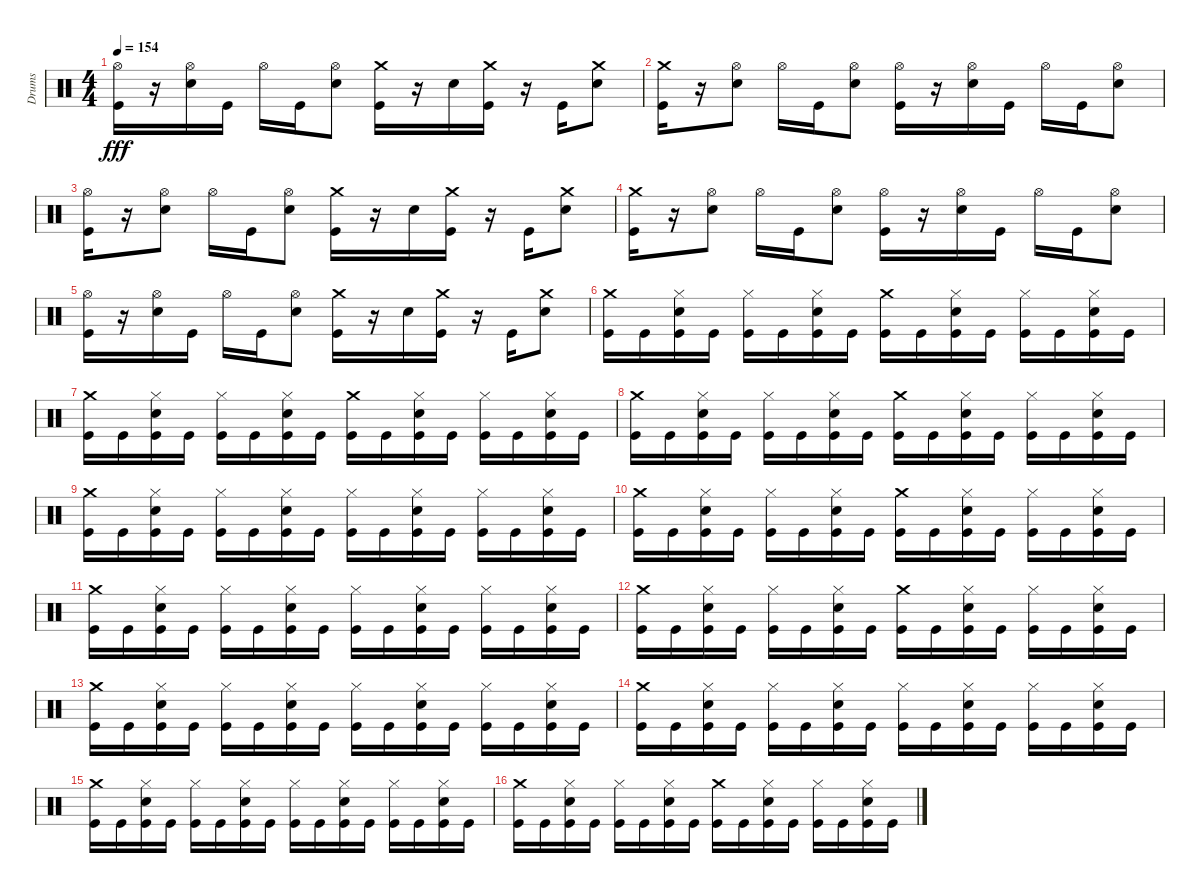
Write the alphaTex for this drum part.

\track ("Drums" "Drums") {instrument percussion}
\staff {score}
\articulation defaults
\ts (4 4)
\tempo 154
\clef neutral
\ks c
("Hi-Hat (open)" "Kick (hit)").16{dy fff} r.16 ("Snare (hit) 2" "Hi-Hat (open)").16 "Kick (hit)".16 "Hi-Hat (open)".16 "Kick (hit)".16 ("Snare (hit) 2" "Hi-Hat (open)").8 ("Crash medium (hit)" "Kick (hit)").16 r.16 "Snare (hit) 2".16 ("Crash medium (hit)" "Kick (hit)").16 r.16 "Kick (hit)".16 ("Crash medium (hit)" "Snare (hit) 2").8 |
("Kick (hit)" "Crash medium (hit)").16 r.16 ("Snare (hit) 2" "Hi-Hat (open)").8 "Hi-Hat (open)".16 "Kick (hit)".16 ("Snare (hit) 2" "Hi-Hat (open)").8 ("Kick (hit)" "Hi-Hat (open)").16 r.16 ("Snare (hit) 2" "Hi-Hat (open)").16 "Kick (hit)".16 "Hi-Hat (open)".16 "Kick (hit)".16 ("Snare (hit) 2" "Hi-Hat (open)").8 |
("Hi-Hat (open)" "Kick (hit)").16 r.16 ("Snare (hit) 2" "Hi-Hat (open)").8 "Hi-Hat (open)".16 "Kick (hit)".16 ("Snare (hit) 2" "Hi-Hat (open)").8 ("Crash medium (hit)" "Kick (hit)").16 r.16 "Snare (hit) 2".16 ("Crash medium (hit)" "Kick (hit)").16 r.16 "Kick (hit)".16 ("Crash medium (hit)" "Snare (hit) 2").8 |
("Kick (hit)" "Crash medium (hit)").16 r.16 ("Snare (hit) 2" "Hi-Hat (open)").8 "Hi-Hat (open)".16 "Kick (hit)".16 ("Snare (hit) 2" "Hi-Hat (open)").8 ("Kick (hit)" "Hi-Hat (open)").16 r.16 ("Snare (hit) 2" "Hi-Hat (open)").16 "Kick (hit)".16 "Hi-Hat (open)".16 "Kick (hit)".16 ("Snare (hit) 2" "Hi-Hat (open)").8 |
("Hi-Hat (open)" "Kick (hit)").16 r.16 ("Snare (hit) 2" "Hi-Hat (open)").16 "Kick (hit)".16 "Hi-Hat (open)".16 "Kick (hit)".16 ("Snare (hit) 2" "Hi-Hat (open)").8 ("Crash medium (hit)" "Kick (hit)").16 r.16 "Snare (hit) 2".16 ("Crash medium (hit)" "Kick (hit)").16 r.16 "Kick (hit)".16 ("Crash medium (hit)" "Snare (hit) 2").8 |
("Crash medium (hit)" "Kick (hit)").16 "Kick (hit)".16 ("Snare (hit) 2" "Hi-Hat (closed)" "Kick (hit)").16 "Kick (hit)".16 ("Hi-Hat (closed)" "Kick (hit)").16 "Kick (hit)".16 ("Snare (hit) 2" "Hi-Hat (closed)" "Kick (hit)").16 "Kick (hit)".16 ("Crash medium (hit)" "Kick (hit)").16 "Kick (hit)".16 ("Snare (hit) 2" "Hi-Hat (closed)" "Kick (hit)").16 "Kick (hit)".16 ("Hi-Hat (closed)" "Kick (hit)").16 "Kick (hit)".16 ("Snare (hit) 2" "Hi-Hat (closed)" "Kick (hit)").16 "Kick (hit)".16 |
("Crash medium (hit)" "Kick (hit)").16 "Kick (hit)".16 ("Snare (hit) 2" "Hi-Hat (closed)" "Kick (hit)").16 "Kick (hit)".16 ("Hi-Hat (closed)" "Kick (hit)").16 "Kick (hit)".16 ("Snare (hit) 2" "Hi-Hat (closed)" "Kick (hit)").16 "Kick (hit)".16 ("Crash medium (hit)" "Kick (hit)").16 "Kick (hit)".16 ("Snare (hit) 2" "Hi-Hat (closed)" "Kick (hit)").16 "Kick (hit)".16 ("Hi-Hat (closed)" "Kick (hit)").16 "Kick (hit)".16 ("Snare (hit) 2" "Hi-Hat (closed)" "Kick (hit)").16 "Kick (hit)".16 |
("Crash medium (hit)" "Kick (hit)").16 "Kick (hit)".16 ("Snare (hit) 2" "Hi-Hat (closed)" "Kick (hit)").16 "Kick (hit)".16 ("Hi-Hat (closed)" "Kick (hit)").16 "Kick (hit)".16 ("Snare (hit) 2" "Hi-Hat (closed)" "Kick (hit)").16 "Kick (hit)".16 ("Crash medium (hit)" "Kick (hit)").16 "Kick (hit)".16 ("Snare (hit) 2" "Hi-Hat (closed)" "Kick (hit)").16 "Kick (hit)".16 ("Hi-Hat (closed)" "Kick (hit)").16 "Kick (hit)".16 ("Snare (hit) 2" "Hi-Hat (closed)" "Kick (hit)").16 "Kick (hit)".16 |
("Crash medium (hit)" "Kick (hit)").16 "Kick (hit)".16 ("Snare (hit) 2" "Hi-Hat (closed)" "Kick (hit)").16 "Kick (hit)".16 ("Hi-Hat (closed)" "Kick (hit)").16 "Kick (hit)".16 ("Snare (hit) 2" "Hi-Hat (closed)" "Kick (hit)").16 "Kick (hit)".16 ("Hi-Hat (closed)" "Kick (hit)").16 "Kick (hit)".16 ("Snare (hit) 2" "Hi-Hat (closed)" "Kick (hit)").16 "Kick (hit)".16 ("Hi-Hat (closed)" "Kick (hit)").16 "Kick (hit)".16 ("Snare (hit) 2" "Hi-Hat (closed)" "Kick (hit)").16 "Kick (hit)".16 |
("Crash medium (hit)" "Kick (hit)").16 "Kick (hit)".16 ("Snare (hit) 2" "Hi-Hat (closed)" "Kick (hit)").16 "Kick (hit)".16 ("Hi-Hat (closed)" "Kick (hit)").16 "Kick (hit)".16 ("Snare (hit) 2" "Hi-Hat (closed)" "Kick (hit)").16 "Kick (hit)".16 ("Crash medium (hit)" "Kick (hit)").16 "Kick (hit)".16 ("Snare (hit) 2" "Hi-Hat (closed)" "Kick (hit)").16 "Kick (hit)".16 ("Hi-Hat (closed)" "Kick (hit)").16 "Kick (hit)".16 ("Snare (hit) 2" "Hi-Hat (closed)" "Kick (hit)").16 "Kick (hit)".16 |
("Crash medium (hit)" "Kick (hit)").16 "Kick (hit)".16 ("Snare (hit) 2" "Hi-Hat (closed)" "Kick (hit)").16 "Kick (hit)".16 ("Hi-Hat (closed)" "Kick (hit)").16 "Kick (hit)".16 ("Snare (hit) 2" "Hi-Hat (closed)" "Kick (hit)").16 "Kick (hit)".16 ("Hi-Hat (closed)" "Kick (hit)").16 "Kick (hit)".16 ("Snare (hit) 2" "Hi-Hat (closed)" "Kick (hit)").16 "Kick (hit)".16 ("Hi-Hat (closed)" "Kick (hit)").16 "Kick (hit)".16 ("Snare (hit) 2" "Hi-Hat (closed)" "Kick (hit)").16 "Kick (hit)".16 |
("Crash medium (hit)" "Kick (hit)").16 "Kick (hit)".16 ("Snare (hit) 2" "Hi-Hat (closed)" "Kick (hit)").16 "Kick (hit)".16 ("Hi-Hat (closed)" "Kick (hit)").16 "Kick (hit)".16 ("Snare (hit) 2" "Hi-Hat (closed)" "Kick (hit)").16 "Kick (hit)".16 ("Crash medium (hit)" "Kick (hit)").16 "Kick (hit)".16 ("Snare (hit) 2" "Hi-Hat (closed)" "Kick (hit)").16 "Kick (hit)".16 ("Hi-Hat (closed)" "Kick (hit)").16 "Kick (hit)".16 ("Snare (hit) 2" "Hi-Hat (closed)" "Kick (hit)").16 "Kick (hit)".16 |
("Crash medium (hit)" "Kick (hit)").16 "Kick (hit)".16 ("Snare (hit) 2" "Hi-Hat (closed)" "Kick (hit)").16 "Kick (hit)".16 ("Hi-Hat (closed)" "Kick (hit)").16 "Kick (hit)".16 ("Snare (hit) 2" "Hi-Hat (closed)" "Kick (hit)").16 "Kick (hit)".16 ("Hi-Hat (closed)" "Kick (hit)").16 "Kick (hit)".16 ("Snare (hit) 2" "Hi-Hat (closed)" "Kick (hit)").16 "Kick (hit)".16 ("Hi-Hat (closed)" "Kick (hit)").16 "Kick (hit)".16 ("Snare (hit) 2" "Hi-Hat (closed)" "Kick (hit)").16 "Kick (hit)".16 |
("Crash medium (hit)" "Kick (hit)").16 "Kick (hit)".16 ("Snare (hit) 2" "Hi-Hat (closed)" "Kick (hit)").16 "Kick (hit)".16 ("Hi-Hat (closed)" "Kick (hit)").16 "Kick (hit)".16 ("Snare (hit) 2" "Hi-Hat (closed)" "Kick (hit)").16 "Kick (hit)".16 ("Hi-Hat (closed)" "Kick (hit)").16 "Kick (hit)".16 ("Snare (hit) 2" "Hi-Hat (closed)" "Kick (hit)").16 "Kick (hit)".16 ("Hi-Hat (closed)" "Kick (hit)").16 "Kick (hit)".16 ("Snare (hit) 2" "Hi-Hat (closed)" "Kick (hit)").16 "Kick (hit)".16 |
("Crash medium (hit)" "Kick (hit)").16 "Kick (hit)".16 ("Snare (hit) 2" "Hi-Hat (closed)" "Kick (hit)").16 "Kick (hit)".16 ("Hi-Hat (closed)" "Kick (hit)").16 "Kick (hit)".16 ("Snare (hit) 2" "Hi-Hat (closed)" "Kick (hit)").16 "Kick (hit)".16 ("Hi-Hat (closed)" "Kick (hit)").16 "Kick (hit)".16 ("Snare (hit) 2" "Hi-Hat (closed)" "Kick (hit)").16 "Kick (hit)".16 ("Hi-Hat (closed)" "Kick (hit)").16 "Kick (hit)".16 ("Snare (hit) 2" "Hi-Hat (closed)" "Kick (hit)").16 "Kick (hit)".16 |
("Crash medium (hit)" "Kick (hit)").16 "Kick (hit)".16 ("Snare (hit) 2" "Hi-Hat (closed)" "Kick (hit)").16 "Kick (hit)".16 ("Hi-Hat (closed)" "Kick (hit)").16 "Kick (hit)".16 ("Snare (hit) 2" "Hi-Hat (closed)" "Kick (hit)").16 "Kick (hit)".16 ("Crash medium (hit)" "Kick (hit)").16 "Kick (hit)".16 ("Snare (hit) 2" "Hi-Hat (closed)" "Kick (hit)").16 "Kick (hit)".16 ("Hi-Hat (closed)" "Kick (hit)").16 "Kick (hit)".16 ("Snare (hit) 2" "Hi-Hat (closed)" "Kick (hit)").16 "Kick (hit)".16
